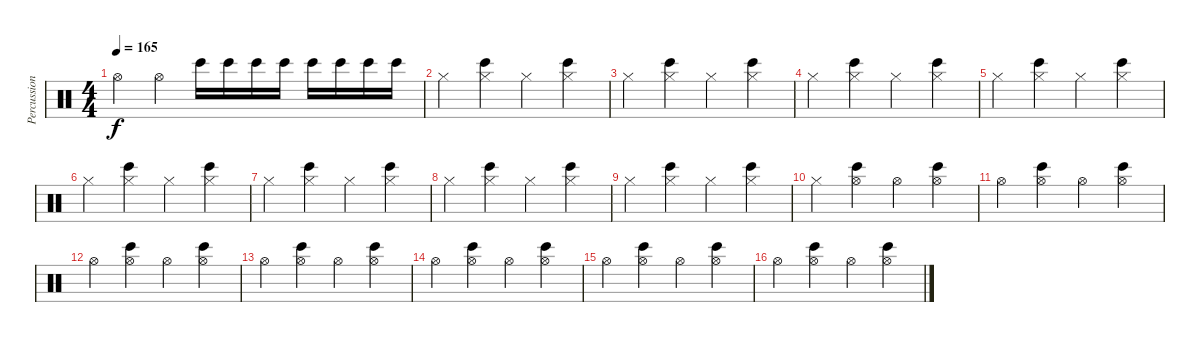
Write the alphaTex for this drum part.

\track ("Percussion" "Percussion") {instrument percussion}
\staff {score}
\articulation defaults
\ts (4 4)
\tempo 165
\clef neutral
\ks c "Hi-Hat (open)".4{dy f} "Hi-Hat (open)".4 "Bongo High (hit)".16 "Bongo High (hit)".16 "Bongo High (hit)".16 "Bongo High (hit)".16 "Bongo High (hit)".16 "Bongo High (hit)".16 "Bongo High (hit)".16 "Bongo High (hit)".16
|
"Hi-Hat (closed)".4 ("Bongo High (hit)" "Hi-Hat (closed)").4 "Hi-Hat (closed)".4 ("Bongo High (hit)" "Hi-Hat (closed)").4 |
"Hi-Hat (closed)".4 ("Bongo High (hit)" "Hi-Hat (closed)").4 "Hi-Hat (closed)".4 ("Bongo High (hit)" "Hi-Hat (closed)").4 |
"Hi-Hat (closed)".4 ("Bongo High (hit)" "Hi-Hat (closed)").4 "Hi-Hat (closed)".4 ("Bongo High (hit)" "Hi-Hat (closed)").4 |
"Hi-Hat (closed)".4 ("Bongo High (hit)" "Hi-Hat (closed)").4 "Hi-Hat (closed)".4 ("Bongo High (hit)" "Hi-Hat (closed)").4 |
"Hi-Hat (closed)".4 ("Bongo High (hit)" "Hi-Hat (closed)").4 "Hi-Hat (closed)".4 ("Bongo High (hit)" "Hi-Hat (closed)").4 |
"Hi-Hat (closed)".4 ("Bongo High (hit)" "Hi-Hat (closed)").4 "Hi-Hat (closed)".4 ("Bongo High (hit)" "Hi-Hat (closed)").4 |
"Hi-Hat (closed)".4 ("Bongo High (hit)" "Hi-Hat (closed)").4 "Hi-Hat (closed)".4 ("Bongo High (hit)" "Hi-Hat (closed)").4 |
"Hi-Hat (closed)".4 ("Bongo High (hit)" "Hi-Hat (closed)").4 "Hi-Hat (closed)".4 ("Bongo High (hit)" "Hi-Hat (closed)").4 |
"Hi-Hat (closed)".4 ("Bongo High (hit)" "Hi-Hat (open)").4 "Hi-Hat (open)".4 ("Bongo High (hit)" "Hi-Hat (open)").4 |
"Hi-Hat (open)".4 ("Bongo High (hit)" "Hi-Hat (open)").4 "Hi-Hat (open)".4 ("Bongo High (hit)" "Hi-Hat (open)").4 |
"Hi-Hat (open)".4 ("Bongo High (hit)" "Hi-Hat (open)").4 "Hi-Hat (open)".4 ("Bongo High (hit)" "Hi-Hat (open)").4 |
"Hi-Hat (open)".4 ("Bongo High (hit)" "Hi-Hat (open)").4 "Hi-Hat (open)".4 ("Bongo High (hit)" "Hi-Hat (open)").4 |
"Hi-Hat (open)".4 ("Bongo High (hit)" "Hi-Hat (open)").4 "Hi-Hat (open)".4 ("Bongo High (hit)" "Hi-Hat (open)").4 |
"Hi-Hat (open)".4 ("Bongo High (hit)" "Hi-Hat (open)").4 "Hi-Hat (open)".4 ("Bongo High (hit)" "Hi-Hat (open)").4 |
"Hi-Hat (open)".4 ("Bongo High (hit)" "Hi-Hat (open)").4 "Hi-Hat (open)".4 ("Bongo High (hit)" "Hi-Hat (open)").4
